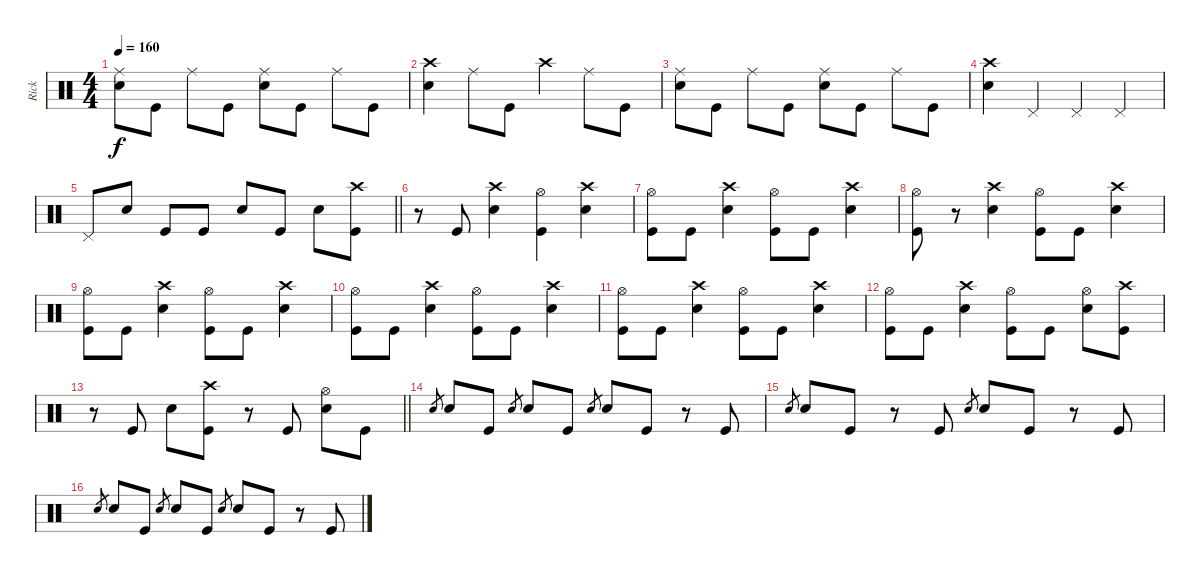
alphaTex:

\track ("Rick" "Rick") {instrument percussion}
\staff {score}
\articulation defaults
\ts (4 4)
\tempo 160
\clef neutral
\ks c
("Ride (middle)" "Snare (hit) 2").8{dy f} "Kick (hit)".8 "Ride (middle)".8 "Kick (hit)".8 ("Ride (middle)" "Snare (hit) 2").8 "Kick (hit)".8 "Ride (middle)".8 "Kick (hit)".8 |
("Crash high (hit)" "Snare (hit) 2").4 "Ride (middle)".8 "Kick (hit)".8 "Crash high (hit)".4 "Ride (middle)".8 "Kick (hit)".8 |
("Ride (middle)" "Snare (hit) 2").8 "Kick (hit)".8 "Ride (middle)".8 "Kick (hit)".8 ("Ride (middle)" "Snare (hit) 2").8 "Kick (hit)".8 "Ride (middle)".8 "Kick (hit)".8 |
("Crash high (hit)" "Snare (hit) 2").4 "Pedal Hi-Hat (hit)".4 "Pedal Hi-Hat (hit)".4 "Pedal Hi-Hat (hit)".4 |
\barLineRight lightlight "Pedal Hi-Hat (hit)".8 "Snare (hit) 2".8 "Kick (hit)".8 "Kick (hit)".8 "Snare (hit) 2".8 "Kick (hit)".8 "Snare (hit) 2".8
("Crash high (hit)" "Kick (hit)").8 |
r.8 "Kick (hit)".8 ("Crash high (hit)" "Snare (hit) 2").4 ("Hi-Hat (open)" "Kick (hit)").4 ("Crash high (hit)" "Snare (hit) 2").4 |
("Hi-Hat (open)" "Kick (hit)").8 "Kick (hit)".8 ("Crash high (hit)" "Snare (hit) 2").4 ("Hi-Hat (open)" "Kick (hit)").8 "Kick (hit)".8 ("Crash high (hit)" "Snare (hit) 2").4 |
("Hi-Hat (open)" "Kick (hit)").8 r.8 ("Crash high (hit)" "Snare (hit) 2").4 ("Hi-Hat (open)" "Kick (hit)").8 "Kick (hit)".8 ("Crash high (hit)" "Snare (hit) 2").4 |
("Hi-Hat (open)" "Kick (hit)").8 "Kick (hit)".8 ("Crash high (hit)" "Snare (hit) 2").4 ("Hi-Hat (open)" "Kick (hit)").8 "Kick (hit)".8 ("Crash high (hit)" "Snare (hit) 2").4 |
("Hi-Hat (open)" "Kick (hit)").8 "Kick (hit)".8 ("Crash high (hit)" "Snare (hit) 2").4 ("Hi-Hat (open)" "Kick (hit)").8 "Kick (hit)".8 ("Crash high (hit)" "Snare (hit) 2").4 |
("Hi-Hat (open)" "Kick (hit)").8 "Kick (hit)".8 ("Crash high (hit)" "Snare (hit) 2").4 ("Hi-Hat (open)" "Kick (hit)").8 "Kick (hit)".8 ("Crash high (hit)" "Snare (hit) 2").4 |
("Hi-Hat (open)" "Kick (hit)").8 "Kick (hit)".8 ("Crash high (hit)" "Snare (hit) 2").4 ("Hi-Hat (open)" "Kick (hit)").8 "Kick (hit)".8 ("Hi-Hat (open)" "Snare (hit) 2").8 ("Crash high (hit)" "Kick (hit)").8 |
\barLineRight lightlight
r.8 "Kick (hit)".8 "Snare (hit) 2".8 ("Crash high (hit)" "Kick (hit)").8 r.8 "Kick (hit)".8 ("Hi-Hat (open)" "Snare (hit) 2").8 "Kick (hit)".8 |
"Snare (hit) 2".8{gr} "Snare (hit) 2".8 "Kick (hit)".8 "Snare (hit) 2".8{gr} "Snare (hit) 2".8 "Kick (hit)".8 "Snare (hit) 2".8{gr} "Snare (hit) 2".8 "Kick (hit)".8 r.8 "Kick (hit)".8 |
"Snare (hit) 2".8{gr} "Snare (hit) 2".8 "Kick (hit)".8 r.8 "Kick (hit)".8 "Snare (hit) 2".8{gr} "Snare (hit) 2".8 "Kick (hit)".8 r.8 "Kick (hit)".8 |
"Snare (hit) 2".8{gr} "Snare (hit) 2".8 "Kick (hit)".8 "Snare (hit) 2".8{gr} "Snare (hit) 2".8 "Kick (hit)".8 "Snare (hit) 2".8{gr} "Snare (hit) 2".8 "Kick (hit)".8 r.8 "Kick (hit)".8
